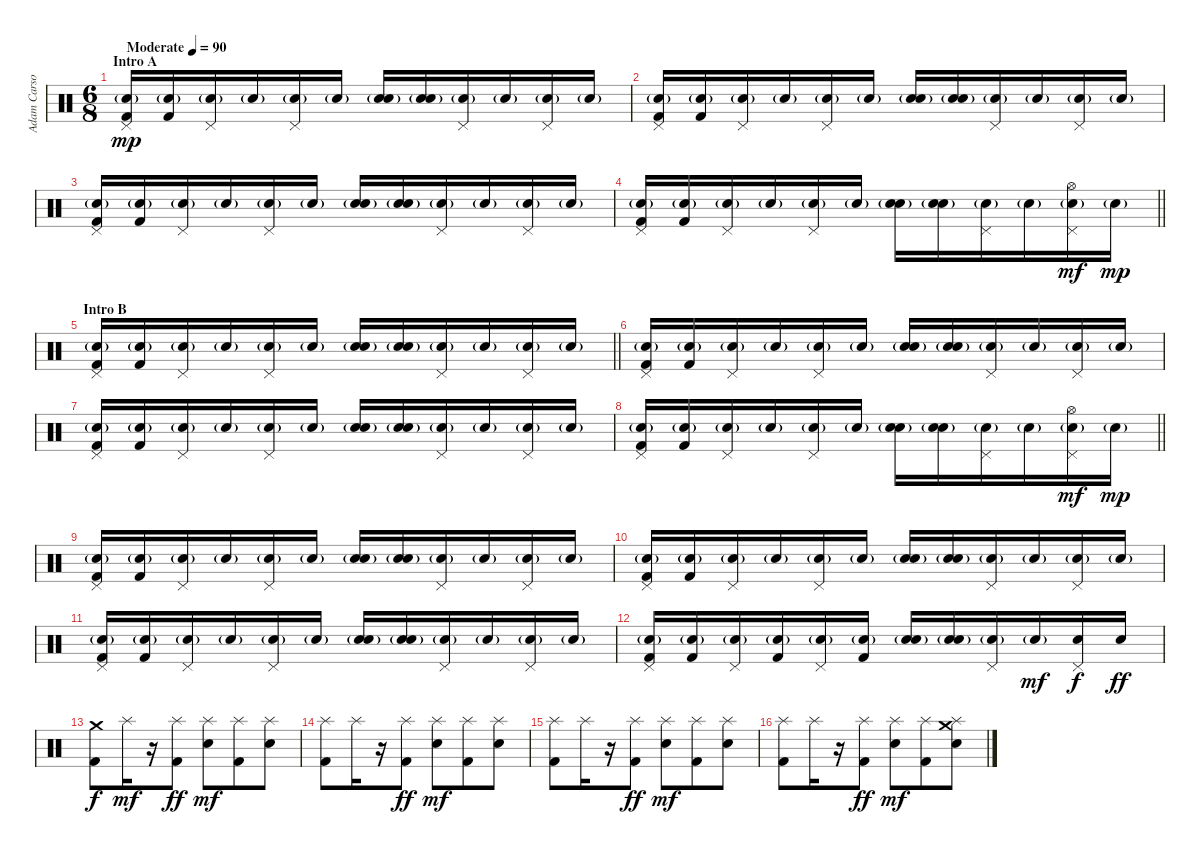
\track ("Adam Carson" "Adam Carso") {instrument percussion}
\staff {score}
\articulation defaults
\ts (6 8)
\section ("" "Intro A")
\tempo (90 "Moderate")
\clef neutral
\ks c
("Snare (hit) 2"{g} "Pedal Hi-Hat (hit)" "Kick (hit) 2").16{dy mp} ("Snare (hit) 2"{g} "Kick (hit) 2").16 ("Snare (hit) 2"{g} "Pedal Hi-Hat (hit)").16 "Snare (hit) 2"{g}.16 ("Snare (hit) 2"{g} "Pedal Hi-Hat (hit)").16 "Snare (hit) 2"{g}.16 ("Snare (hit) 2"{g} "Snare (hit) 2").16 ("Snare (hit) 2"{g} "Snare (hit) 2").16 ("Snare (hit) 2"{g} "Pedal Hi-Hat (hit)").16 "Snare (hit) 2"{g}.16 ("Snare (hit) 2"{g} "Pedal Hi-Hat (hit)").16 "Snare (hit) 2"{g}.16 |
("Snare (hit) 2"{g} "Pedal Hi-Hat (hit)" "Kick (hit) 2").16 ("Snare (hit) 2"{g} "Kick (hit) 2").16 ("Snare (hit) 2"{g} "Pedal Hi-Hat (hit)").16 "Snare (hit) 2"{g}.16 ("Snare (hit) 2"{g} "Pedal Hi-Hat (hit)").16 "Snare (hit) 2"{g}.16 ("Snare (hit) 2"{g} "Snare (hit) 2").16 ("Snare (hit) 2"{g} "Snare (hit) 2").16 ("Snare (hit) 2"{g} "Pedal Hi-Hat (hit)").16 "Snare (hit) 2"{g}.16 ("Snare (hit) 2"{g} "Pedal Hi-Hat (hit)").16 "Snare (hit) 2"{g}.16 |
("Snare (hit) 2"{g} "Pedal Hi-Hat (hit)" "Kick (hit) 2").16 ("Snare (hit) 2"{g} "Kick (hit) 2").16 ("Snare (hit) 2"{g} "Pedal Hi-Hat (hit)").16 "Snare (hit) 2"{g}.16 ("Snare (hit) 2"{g} "Pedal Hi-Hat (hit)").16 "Snare (hit) 2"{g}.16 ("Snare (hit) 2"{g} "Snare (hit) 2").16 ("Snare (hit) 2"{g} "Snare (hit) 2").16 ("Snare (hit) 2"{g} "Pedal Hi-Hat (hit)").16 "Snare (hit) 2"{g}.16 ("Snare (hit) 2"{g} "Pedal Hi-Hat (hit)").16 "Snare (hit) 2"{g}.16 |
\barLineRight lightlight
("Snare (hit) 2"{g} "Pedal Hi-Hat (hit)" "Kick (hit) 2").16 ("Snare (hit) 2"{g} "Kick (hit) 2").16 ("Snare (hit) 2"{g} "Pedal Hi-Hat (hit)").16 "Snare (hit) 2"{g}.16 ("Snare (hit) 2"{g} "Pedal Hi-Hat (hit)").16 "Snare (hit) 2"{g}.16 ("Snare (hit) 2"{g} "Snare (hit) 2").16 ("Snare (hit) 2"{g} "Snare (hit) 2").16 ("Snare (hit) 2"{g} "Pedal Hi-Hat (hit)").16 "Snare (hit) 2"{g}.16 ("Snare (hit) 2"{g} "Pedal Hi-Hat (hit)" "Hi-Hat (open)").16{dy mf} "Snare (hit) 2"{g}.16{dy mp} |
\section ("" "Intro B")
\barLineRight lightlight
("Snare (hit) 2"{g} "Pedal Hi-Hat (hit)" "Kick (hit) 2").16 ("Snare (hit) 2"{g} "Kick (hit) 2").16 ("Snare (hit) 2"{g} "Pedal Hi-Hat (hit)").16 "Snare (hit) 2"{g}.16 ("Snare (hit) 2"{g} "Pedal Hi-Hat (hit)").16 "Snare (hit) 2"{g}.16 ("Snare (hit) 2"{g} "Snare (hit) 2").16 ("Snare (hit) 2"{g} "Snare (hit) 2").16 ("Snare (hit) 2"{g} "Pedal Hi-Hat (hit)").16 "Snare (hit) 2"{g}.16 ("Snare (hit) 2"{g} "Pedal Hi-Hat (hit)").16 "Snare (hit) 2"{g}.16 |
("Snare (hit) 2"{g} "Pedal Hi-Hat (hit)" "Kick (hit) 2").16 ("Snare (hit) 2"{g} "Kick (hit) 2").16 ("Snare (hit) 2"{g} "Pedal Hi-Hat (hit)").16 "Snare (hit) 2"{g}.16 ("Snare (hit) 2"{g} "Pedal Hi-Hat (hit)").16 "Snare (hit) 2"{g}.16 ("Snare (hit) 2"{g} "Snare (hit) 2").16 ("Snare (hit) 2"{g} "Snare (hit) 2").16 ("Snare (hit) 2"{g} "Pedal Hi-Hat (hit)").16 "Snare (hit) 2"{g}.16 ("Snare (hit) 2"{g} "Pedal Hi-Hat (hit)").16 "Snare (hit) 2"{g}.16 |
("Snare (hit) 2"{g} "Pedal Hi-Hat (hit)" "Kick (hit) 2").16 ("Snare (hit) 2"{g} "Kick (hit) 2").16 ("Snare (hit) 2"{g} "Pedal Hi-Hat (hit)").16 "Snare (hit) 2"{g}.16 ("Snare (hit) 2"{g} "Pedal Hi-Hat (hit)").16 "Snare (hit) 2"{g}.16 ("Snare (hit) 2"{g} "Snare (hit) 2").16 ("Snare (hit) 2"{g} "Snare (hit) 2").16 ("Snare (hit) 2"{g} "Pedal Hi-Hat (hit)").16 "Snare (hit) 2"{g}.16 ("Snare (hit) 2"{g} "Pedal Hi-Hat (hit)").16 "Snare (hit) 2"{g}.16 |
\barLineRight lightlight
("Snare (hit) 2"{g} "Pedal Hi-Hat (hit)" "Kick (hit) 2").16 ("Snare (hit) 2"{g} "Kick (hit) 2").16 ("Snare (hit) 2"{g} "Pedal Hi-Hat (hit)").16 "Snare (hit) 2"{g}.16 ("Snare (hit) 2"{g} "Pedal Hi-Hat (hit)").16 "Snare (hit) 2"{g}.16 ("Snare (hit) 2"{g} "Snare (hit) 2").16 ("Snare (hit) 2"{g} "Snare (hit) 2").16 ("Snare (hit) 2"{g} "Pedal Hi-Hat (hit)").16 "Snare (hit) 2"{g}.16 ("Snare (hit) 2"{g} "Pedal Hi-Hat (hit)" "Hi-Hat (open)").16{dy mf} "Snare (hit) 2"{g}.16{dy mp} |
("Snare (hit) 2"{g} "Pedal Hi-Hat (hit)" "Kick (hit) 2").16 ("Snare (hit) 2"{g} "Kick (hit) 2").16 ("Snare (hit) 2"{g} "Pedal Hi-Hat (hit)").16 "Snare (hit) 2"{g}.16 ("Snare (hit) 2"{g} "Pedal Hi-Hat (hit)").16 "Snare (hit) 2"{g}.16 ("Snare (hit) 2"{g} "Snare (hit) 2").16 ("Snare (hit) 2"{g} "Snare (hit) 2").16 ("Snare (hit) 2"{g} "Pedal Hi-Hat (hit)").16 "Snare (hit) 2"{g}.16 ("Snare (hit) 2"{g} "Pedal Hi-Hat (hit)").16 "Snare (hit) 2"{g}.16 |
("Snare (hit) 2"{g} "Pedal Hi-Hat (hit)" "Kick (hit) 2").16 ("Snare (hit) 2"{g} "Kick (hit) 2").16 ("Snare (hit) 2"{g} "Pedal Hi-Hat (hit)").16 "Snare (hit) 2"{g}.16 ("Snare (hit) 2"{g} "Pedal Hi-Hat (hit)").16 "Snare (hit) 2"{g}.16 ("Snare (hit) 2"{g} "Snare (hit) 2").16 ("Snare (hit) 2"{g} "Snare (hit) 2").16 ("Snare (hit) 2"{g} "Pedal Hi-Hat (hit)").16 "Snare (hit) 2"{g}.16 ("Snare (hit) 2"{g} "Pedal Hi-Hat (hit)").16 "Snare (hit) 2"{g}.16 |
("Snare (hit) 2"{g} "Pedal Hi-Hat (hit)" "Kick (hit) 2").16 ("Snare (hit) 2"{g} "Kick (hit) 2").16 ("Snare (hit) 2"{g} "Pedal Hi-Hat (hit)").16 "Snare (hit) 2"{g}.16 ("Snare (hit) 2"{g} "Pedal Hi-Hat (hit)").16 "Snare (hit) 2"{g}.16 ("Snare (hit) 2"{g} "Snare (hit) 2").16 ("Snare (hit) 2"{g} "Snare (hit) 2").16 ("Snare (hit) 2"{g} "Pedal Hi-Hat (hit)").16 "Snare (hit) 2"{g}.16 ("Snare (hit) 2"{g} "Pedal Hi-Hat (hit)").16 "Snare (hit) 2"{g}.16 |
("Snare (hit) 2"{g} "Pedal Hi-Hat (hit)" "Kick (hit) 2").16 ("Snare (hit) 2"{g} "Kick (hit) 2").16 ("Snare (hit) 2"{g} "Pedal Hi-Hat (hit)").16 ("Snare (hit) 2"{g} "Kick (hit) 2").16 ("Snare (hit) 2"{g} "Pedal Hi-Hat (hit)").16 ("Snare (hit) 2"{g} "Kick (hit) 2").16 ("Snare (hit) 2"{g} "Snare (hit) 2").16 ("Snare (hit) 2"{g} "Snare (hit) 2").16 ("Snare (hit) 2"{g} "Pedal Hi-Hat (hit)").16 "Snare (hit) 2"{g}.16{dy mf} ("Snare (hit) 2" "Pedal Hi-Hat (hit)").16{dy f} "Snare (hit) 2".16{dy ff} |
("Crash medium (hit)" "Kick (hit) 2").8{dy f} "Splash (hit)".16{dy mf} r.16 ("Splash (hit)" "Kick (hit) 2").8{dy ff} ("Splash (hit)" "Snare (hit) 2").8{dy mf} ("Splash (hit)" "Kick (hit) 2").8 ("Splash (hit)" "Snare (hit) 2").8 |
("Splash (hit)" "Kick (hit) 2").8 "Splash (hit)".16 r.16 ("Splash (hit)" "Kick (hit) 2").8{dy ff} ("Splash (hit)" "Snare (hit) 2").8{dy mf} ("Splash (hit)" "Kick (hit) 2").8 ("Splash (hit)" "Snare (hit) 2").8 |
("Splash (hit)" "Kick (hit) 2").8 "Splash (hit)".16 r.16 ("Splash (hit)" "Kick (hit) 2").8{dy ff} ("Splash (hit)" "Snare (hit) 2").8{dy mf} ("Splash (hit)" "Kick (hit) 2").8 ("Splash (hit)" "Snare (hit) 2").8 |
("Splash (hit)" "Kick (hit) 2").8 "Splash (hit)".16 r.16 ("Splash (hit)" "Kick (hit) 2").8{dy ff} ("Splash (hit)" "Snare (hit) 2").8{dy mf} ("Splash (hit)" "Kick (hit) 2").8 ("Splash (hit)" "Crash medium (hit)" "Snare (hit) 2").8
